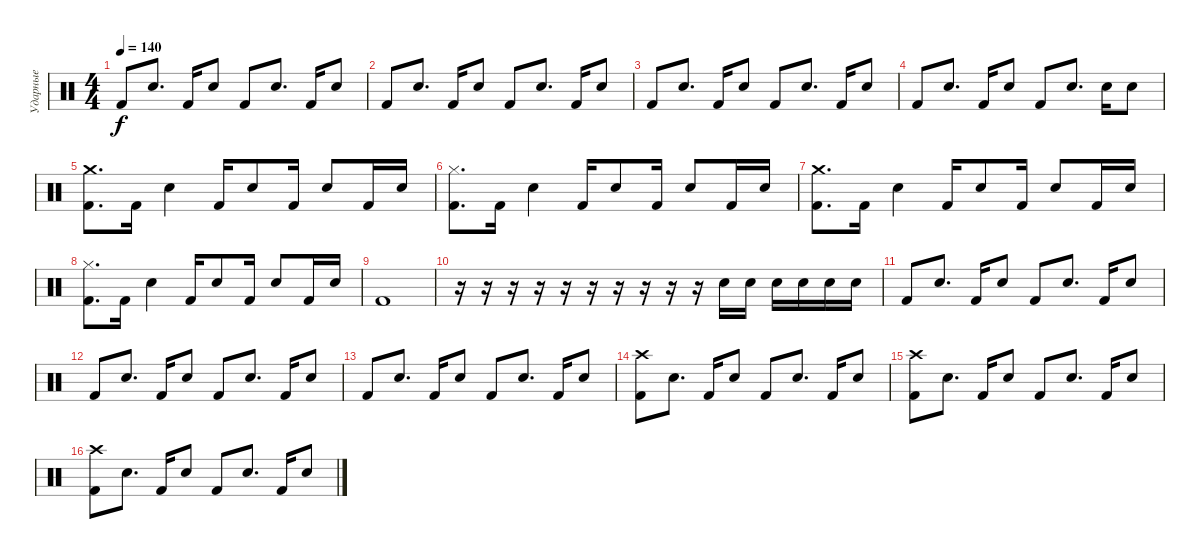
\track ("Ударные" "Ударные") {instrument percussion}
\staff {score}
\articulation defaults
\ts (4 4)
\tempo 140
\clef neutral
\ks c "Kick (hit) 2".8{dy f} "Electric Snare (hit)".8{d} "Kick (hit) 2".16 "Electric Snare (hit)".8 "Kick (hit) 2".8 "Electric Snare (hit)".8{d} "Kick (hit) 2".16 "Electric Snare (hit)".8
|
"Kick (hit) 2".8 "Electric Snare (hit)".8{d} "Kick (hit) 2".16 "Electric Snare (hit)".8 "Kick (hit) 2".8 "Electric Snare (hit)".8{d} "Kick (hit) 2".16 "Electric Snare (hit)".8 |
"Kick (hit) 2".8 "Electric Snare (hit)".8{d} "Kick (hit) 2".16 "Electric Snare (hit)".8 "Kick (hit) 2".8 "Electric Snare (hit)".8{d} "Kick (hit) 2".16 "Electric Snare (hit)".8 |
"Kick (hit) 2".8 "Electric Snare (hit)".8{d} "Kick (hit) 2".16 "Electric Snare (hit)".8 "Kick (hit) 2".8 "Electric Snare (hit)".8{d} "Electric Snare (hit)".16 "Electric Snare (hit)".8 |
("Crash medium (hit)" "Kick (hit) 2").8{d} "Kick (hit) 2".16 "Electric Snare (hit)".4 "Kick (hit) 2".16 "Electric Snare (hit)".8 "Kick (hit) 2".16 "Electric Snare (hit)".8 "Kick (hit) 2".16 "Electric Snare (hit)".16 |
("Hi-Hat (closed)" "Kick (hit) 2").8{d} "Kick (hit) 2".16 "Electric Snare (hit)".4 "Kick (hit) 2".16 "Electric Snare (hit)".8 "Kick (hit) 2".16 "Electric Snare (hit)".8 "Kick (hit) 2".16 "Electric Snare (hit)".16 |
("Crash medium (hit)" "Kick (hit) 2").8{d} "Kick (hit) 2".16 "Electric Snare (hit)".4 "Kick (hit) 2".16 "Electric Snare (hit)".8 "Kick (hit) 2".16 "Electric Snare (hit)".8 "Kick (hit) 2".16 "Electric Snare (hit)".16 |
("Hi-Hat (closed)" "Kick (hit) 2").8{d} "Kick (hit) 2".16 "Electric Snare (hit)".4 "Kick (hit) 2".16 "Electric Snare (hit)".8 "Kick (hit) 2".16 "Electric Snare (hit)".8 "Kick (hit) 2".16 "Electric Snare (hit)".16 |
"Kick (hit) 2".1 |
r.16 r.16 r.16 r.16 r.16 r.16 r.16 r.16 r.16 r.16 "Electric Snare (hit)".16 "Electric Snare (hit)".16 "Electric Snare (hit)".16 "Electric Snare (hit)".16 "Electric Snare (hit)".16 "Electric Snare (hit)".16 |
"Kick (hit) 2".8 "Electric Snare (hit)".8{d} "Kick (hit) 2".16 "Electric Snare (hit)".8 "Kick (hit) 2".8 "Electric Snare (hit)".8{d} "Kick (hit) 2".16 "Electric Snare (hit)".8 |
"Kick (hit) 2".8 "Electric Snare (hit)".8{d} "Kick (hit) 2".16 "Electric Snare (hit)".8 "Kick (hit) 2".8 "Electric Snare (hit)".8{d} "Kick (hit) 2".16 "Electric Snare (hit)".8 |
"Kick (hit) 2".8 "Electric Snare (hit)".8{d} "Kick (hit) 2".16 "Electric Snare (hit)".8 "Kick (hit) 2".8 "Electric Snare (hit)".8{d} "Kick (hit) 2".16 "Electric Snare (hit)".8 |
("Kick (hit) 2" "Crash high (hit)").8 "Electric Snare (hit)".8{d} "Kick (hit) 2".16 "Electric Snare (hit)".8 "Kick (hit) 2".8 "Electric Snare (hit)".8{d} "Kick (hit) 2".16 "Electric Snare (hit)".8 |
("Kick (hit) 2" "Crash high (hit)").8 "Electric Snare (hit)".8{d} "Kick (hit) 2".16 "Electric Snare (hit)".8 "Kick (hit) 2".8 "Electric Snare (hit)".8{d} "Kick (hit) 2".16 "Electric Snare (hit)".8 |
("Kick (hit) 2" "Crash high (hit)").8 "Electric Snare (hit)".8{d} "Kick (hit) 2".16 "Electric Snare (hit)".8 "Kick (hit) 2".8 "Electric Snare (hit)".8{d} "Kick (hit) 2".16 "Electric Snare (hit)".8
